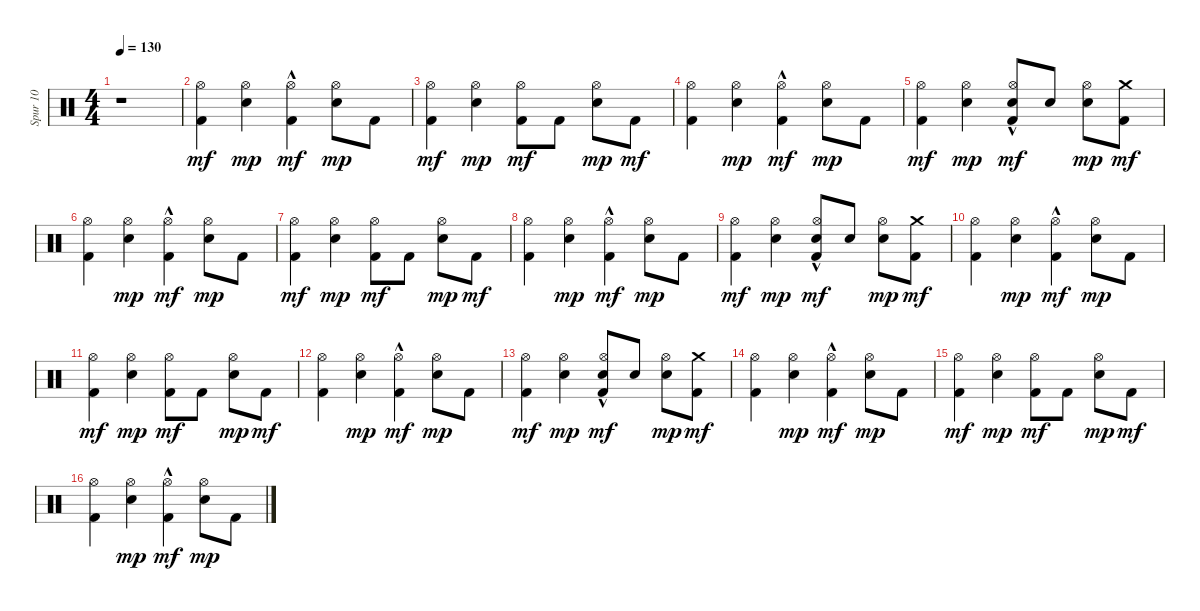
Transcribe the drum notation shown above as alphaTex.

\track ("Spur 10" "Spur 10") {instrument percussion}
\staff {score}
\articulation defaults
\ts (4 4)
\tempo 130
\clef neutral
\ks c
r.1{dy mf} |
("Kick (hit) 2" "Hi-Hat (open)").4 ("Snare (hit) 2" "Hi-Hat (open)").4{dy mp} ("Kick (hit) 2"{hac} "Hi-Hat (open)").4{dy mf} ("Snare (hit) 2" "Hi-Hat (open)").8{dy mp} "Kick (hit) 2".8 |
("Kick (hit) 2" "Hi-Hat (open)").4{dy mf} ("Snare (hit) 2" "Hi-Hat (open)").4{dy mp} ("Kick (hit) 2" "Hi-Hat (open)").8{dy mf} "Kick (hit) 2".8 ("Snare (hit) 2" "Hi-Hat (open)").8{dy mp} "Kick (hit) 2".8{dy mf} |
("Kick (hit) 2" "Hi-Hat (open)").4 ("Snare (hit) 2" "Hi-Hat (open)").4{dy mp} ("Kick (hit) 2"{hac} "Hi-Hat (open)").4{dy mf} ("Snare (hit) 2" "Hi-Hat (open)").8{dy mp} "Kick (hit) 2".8 |
("Kick (hit) 2" "Hi-Hat (open)").4{dy mf} ("Snare (hit) 2" "Hi-Hat (open)").4{dy mp} ("Snare (hit) 2" "Kick (hit) 2"{hac} "Hi-Hat (open)").8{dy mf} "Snare (hit) 2".8 ("Snare (hit) 2" "Hi-Hat (open)").8{dy mp} ("Crash medium (hit)" "Kick (hit) 2").8{dy mf} |
("Kick (hit) 2" "Hi-Hat (open)").4 ("Snare (hit) 2" "Hi-Hat (open)").4{dy mp} ("Kick (hit) 2"{hac} "Hi-Hat (open)").4{dy mf} ("Snare (hit) 2" "Hi-Hat (open)").8{dy mp} "Kick (hit) 2".8 |
("Kick (hit) 2" "Hi-Hat (open)").4{dy mf} ("Snare (hit) 2" "Hi-Hat (open)").4{dy mp} ("Kick (hit) 2" "Hi-Hat (open)").8{dy mf} "Kick (hit) 2".8 ("Snare (hit) 2" "Hi-Hat (open)").8{dy mp} "Kick (hit) 2".8{dy mf} |
("Kick (hit) 2" "Hi-Hat (open)").4 ("Snare (hit) 2" "Hi-Hat (open)").4{dy mp} ("Kick (hit) 2"{hac} "Hi-Hat (open)").4{dy mf} ("Snare (hit) 2" "Hi-Hat (open)").8{dy mp} "Kick (hit) 2".8 |
("Kick (hit) 2" "Hi-Hat (open)").4{dy mf} ("Snare (hit) 2" "Hi-Hat (open)").4{dy mp} ("Snare (hit) 2" "Kick (hit) 2"{hac} "Hi-Hat (open)").8{dy mf} "Snare (hit) 2".8 ("Snare (hit) 2" "Hi-Hat (open)").8{dy mp} ("Crash medium (hit)" "Kick (hit) 2").8{dy mf} |
("Kick (hit) 2" "Hi-Hat (open)").4 ("Snare (hit) 2" "Hi-Hat (open)").4{dy mp} ("Kick (hit) 2"{hac} "Hi-Hat (open)").4{dy mf} ("Snare (hit) 2" "Hi-Hat (open)").8{dy mp} "Kick (hit) 2".8 |
("Kick (hit) 2" "Hi-Hat (open)").4{dy mf} ("Snare (hit) 2" "Hi-Hat (open)").4{dy mp} ("Kick (hit) 2" "Hi-Hat (open)").8{dy mf} "Kick (hit) 2".8 ("Snare (hit) 2" "Hi-Hat (open)").8{dy mp} "Kick (hit) 2".8{dy mf} |
("Kick (hit) 2" "Hi-Hat (open)").4 ("Snare (hit) 2" "Hi-Hat (open)").4{dy mp} ("Kick (hit) 2"{hac} "Hi-Hat (open)").4{dy mf} ("Snare (hit) 2" "Hi-Hat (open)").8{dy mp} "Kick (hit) 2".8 |
("Kick (hit) 2" "Hi-Hat (open)").4{dy mf} ("Snare (hit) 2" "Hi-Hat (open)").4{dy mp} ("Snare (hit) 2" "Kick (hit) 2"{hac} "Hi-Hat (open)").8{dy mf} "Snare (hit) 2".8 ("Snare (hit) 2" "Hi-Hat (open)").8{dy mp} ("Crash medium (hit)" "Kick (hit) 2").8{dy mf} |
("Kick (hit) 2" "Hi-Hat (open)").4 ("Snare (hit) 2" "Hi-Hat (open)").4{dy mp} ("Kick (hit) 2"{hac} "Hi-Hat (open)").4{dy mf} ("Snare (hit) 2" "Hi-Hat (open)").8{dy mp} "Kick (hit) 2".8 |
("Kick (hit) 2" "Hi-Hat (open)").4{dy mf} ("Snare (hit) 2" "Hi-Hat (open)").4{dy mp} ("Kick (hit) 2" "Hi-Hat (open)").8{dy mf} "Kick (hit) 2".8 ("Snare (hit) 2" "Hi-Hat (open)").8{dy mp} "Kick (hit) 2".8{dy mf} |
("Kick (hit) 2" "Hi-Hat (open)").4 ("Snare (hit) 2" "Hi-Hat (open)").4{dy mp} ("Kick (hit) 2"{hac} "Hi-Hat (open)").4{dy mf} ("Snare (hit) 2" "Hi-Hat (open)").8{dy mp} "Kick (hit) 2".8
